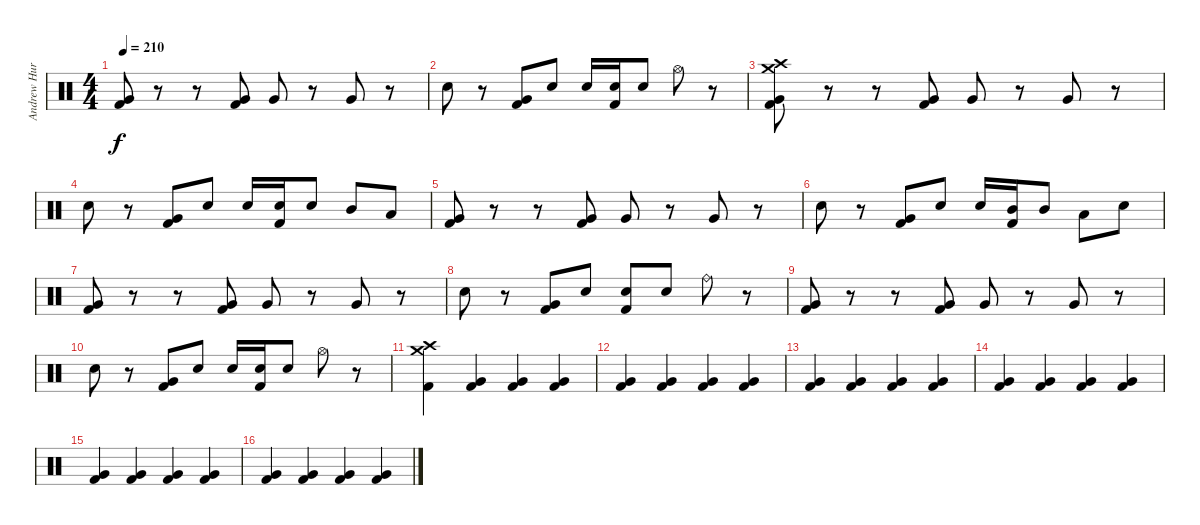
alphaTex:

\track ("Andrew Hurley (Drums)" "Andrew Hur") {instrument percussion}
\staff {score}
\articulation defaults
\ts (4 4)
\tempo 210
\clef neutral
\ks c
("Very Low Tom (hit)" "Kick (hit) 2").8{dy f volume 8} r.8 r.8 ("Very Low Tom (hit)" "Kick (hit) 2").8 "Very Low Tom (hit)".8 r.8 "Very Low Tom (hit)".8 r.8 |
"Electric Snare (hit)".8{volume 8} r.8 ("Very Low Tom (hit)" "Kick (hit) 2").8 "Electric Snare (hit)".8 "Electric Snare (hit)".16 ("Electric Snare (hit)" "Kick (hit) 2").16 "Electric Snare (hit)".8 "Hi-Hat (open)".8 r.8 |
("Crash medium (hit)" "Crash high (hit)" "Very Low Tom (hit)" "Kick (hit) 2").8 r.8{volume 8} r.8 ("Very Low Tom (hit)" "Kick (hit) 2").8 "Very Low Tom (hit)".8 r.8 "Very Low Tom (hit)".8 r.8 |
"Electric Snare (hit)".8{volume 8} r.8 ("Very Low Tom (hit)" "Kick (hit) 2").8 "Electric Snare (hit)".8 "Electric Snare (hit)".16 ("Electric Snare (hit)" "Kick (hit) 2").16 "Electric Snare (hit)".8 "Mid Tom (hit)".8 "Low Tom (hit)".8 |
("Very Low Tom (hit)" "Kick (hit) 2").8{volume 8} r.8 r.8 ("Very Low Tom (hit)" "Kick (hit) 2").8 "Very Low Tom (hit)".8 r.8 "Very Low Tom (hit)".8 r.8 |
"Electric Snare (hit)".8{volume 8} r.8 ("Very Low Tom (hit)" "Kick (hit) 2").8 "Electric Snare (hit)".8 "Electric Snare (hit)".16 ("Mid Tom (hit)" "Kick (hit) 2").16 "Mid Tom (hit)".8 "Low Tom (hit)".8 "Electric Snare (hit)".8 |
("Very Low Tom (hit)" "Kick (hit) 2").8{volume 8} r.8 r.8 ("Very Low Tom (hit)" "Kick (hit) 2").8 "Very Low Tom (hit)".8 r.8 "Very Low Tom (hit)".8 r.8 |
"Electric Snare (hit)".8{volume 8} r.8 ("Very Low Tom (hit)" "Kick (hit) 2").8 "Electric Snare (hit)".8 ("Electric Snare (hit)" "Kick (hit) 2").8 "Electric Snare (hit)".8 "Ride (bell)".8 r.8 |
("Very Low Tom (hit)" "Kick (hit) 2").8{volume 8} r.8 r.8 ("Very Low Tom (hit)" "Kick (hit) 2").8 "Very Low Tom (hit)".8 r.8 "Very Low Tom (hit)".8 r.8 |
"Electric Snare (hit)".8{volume 8} r.8 ("Very Low Tom (hit)" "Kick (hit) 2").8 "Electric Snare (hit)".8 "Electric Snare (hit)".16 ("Electric Snare (hit)" "Kick (hit) 2").16 "Electric Snare (hit)".8 "Hi-Hat (open)".8 r.8 |
("Crash medium (hit)" "Crash high (hit)" "Kick (hit) 2").4 ("Very Low Tom (hit)" "Kick (hit) 2").4 ("Very Low Tom (hit)" "Kick (hit) 2").4 ("Very Low Tom (hit)" "Kick (hit) 2").4 |
("Very Low Tom (hit)" "Kick (hit) 2").4{volume 6} ("Very Low Tom (hit)" "Kick (hit) 2").4 ("Very Low Tom (hit)" "Kick (hit) 2").4 ("Very Low Tom (hit)" "Kick (hit) 2").4 |
("Very Low Tom (hit)" "Kick (hit) 2").4{volume 6} ("Very Low Tom (hit)" "Kick (hit) 2").4 ("Very Low Tom (hit)" "Kick (hit) 2").4 ("Very Low Tom (hit)" "Kick (hit) 2").4 |
("Very Low Tom (hit)" "Kick (hit) 2").4{volume 6} ("Very Low Tom (hit)" "Kick (hit) 2").4 ("Very Low Tom (hit)" "Kick (hit) 2").4 ("Very Low Tom (hit)" "Kick (hit) 2").4 |
("Very Low Tom (hit)" "Kick (hit) 2").4{volume 8} ("Very Low Tom (hit)" "Kick (hit) 2").4 ("Very Low Tom (hit)" "Kick (hit) 2").4 ("Very Low Tom (hit)" "Kick (hit) 2").4 |
("Very Low Tom (hit)" "Kick (hit) 2").4 ("Very Low Tom (hit)" "Kick (hit) 2").4 ("Very Low Tom (hit)" "Kick (hit) 2").4 ("Very Low Tom (hit)" "Kick (hit) 2").4
